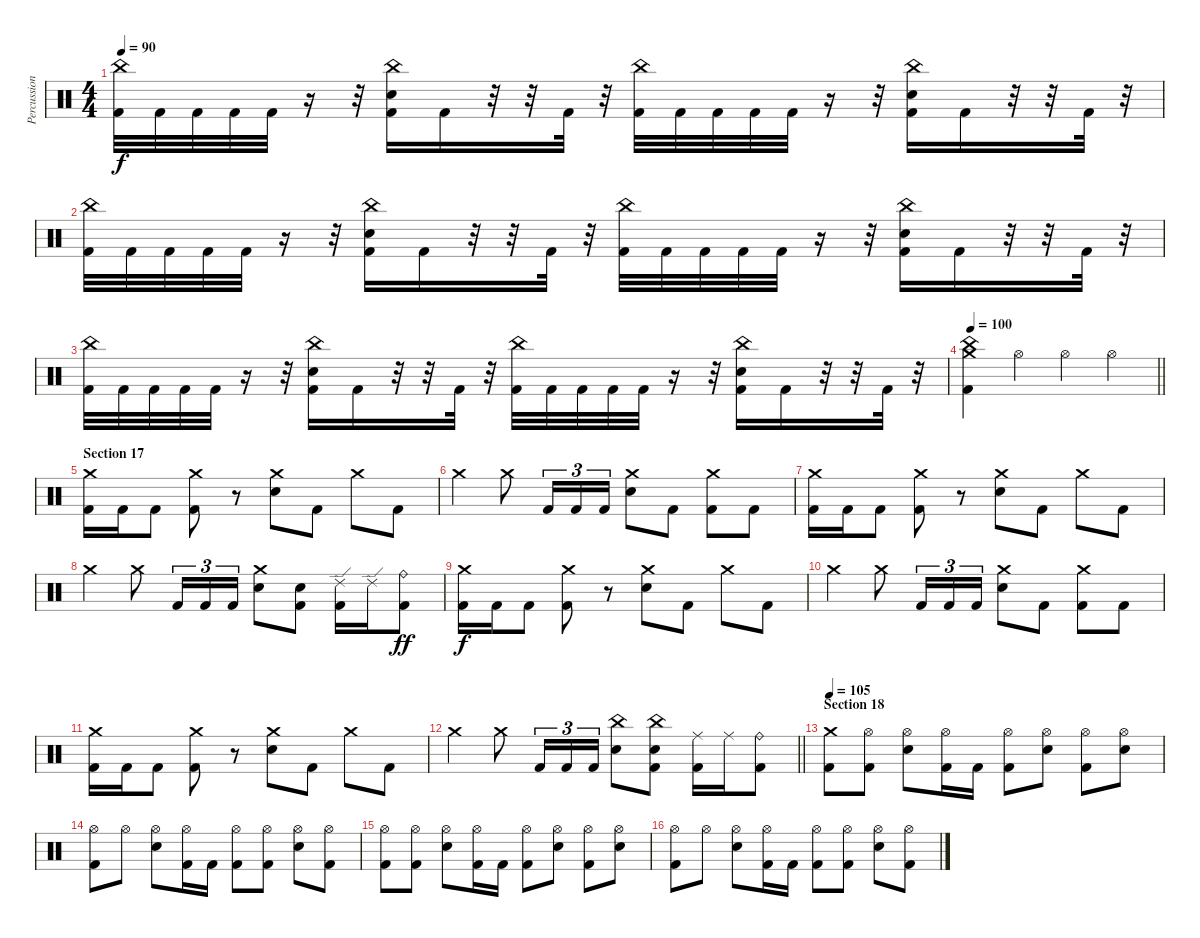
\track ("Percussion" "Percussion") {instrument percussion}
\staff {score}
\articulation defaults
\ts (4 4)
\tempo 90
\clef neutral
\ks c
("China (hit)" "Kick (hit) 2").32{dy f} "Kick (hit) 2".32 "Kick (hit) 2".32 "Kick (hit) 2".32 "Kick (hit) 2".32 r.16 r.32 ("China (hit)" "Electric Snare (hit)" "Kick (hit) 2").16 "Kick (hit) 2".16 r.32 r.32 "Kick (hit) 2".32 r.32 ("China (hit)" "Kick (hit) 2").32 "Kick (hit) 2".32 "Kick (hit) 2".32 "Kick (hit) 2".32 "Kick (hit) 2".32 r.16 r.32 ("China (hit)" "Electric Snare (hit)" "Kick (hit) 2").16 "Kick (hit) 2".16 r.32 r.32 "Kick (hit) 2".32 r.32 |
("China (hit)" "Kick (hit) 2").32 "Kick (hit) 2".32 "Kick (hit) 2".32 "Kick (hit) 2".32 "Kick (hit) 2".32 r.16 r.32 ("China (hit)" "Electric Snare (hit)" "Kick (hit) 2").16 "Kick (hit) 2".16 r.32 r.32 "Kick (hit) 2".32 r.32 ("China (hit)" "Kick (hit) 2").32 "Kick (hit) 2".32 "Kick (hit) 2".32 "Kick (hit) 2".32 "Kick (hit) 2".32 r.16 r.32 ("China (hit)" "Electric Snare (hit)" "Kick (hit) 2").16 "Kick (hit) 2".16 r.32 r.32 "Kick (hit) 2".32 r.32 |
("China (hit)" "Kick (hit) 2").32 "Kick (hit) 2".32 "Kick (hit) 2".32 "Kick (hit) 2".32 "Kick (hit) 2".32 r.16 r.32 ("China (hit)" "Electric Snare (hit)" "Kick (hit) 2").16 "Kick (hit) 2".16 r.32 r.32 "Kick (hit) 2".32 r.32 ("China (hit)" "Kick (hit) 2").32 "Kick (hit) 2".32 "Kick (hit) 2".32 "Kick (hit) 2".32 "Kick (hit) 2".32 r.16 r.32 ("China (hit)" "Electric Snare (hit)" "Kick (hit) 2").16 "Kick (hit) 2".16 r.32 r.32 "Kick (hit) 2".32 r.32 |
\tempo 100
\barLineRight lightlight
("China (hit)" "Crash medium (hit)" "Kick (hit) 2").4 "Hi-Hat (open)".4 "Hi-Hat (open)".4 "Hi-Hat (open)".4 |
\section ("" "Section 17")
("Crash medium (hit)" "Kick (hit) 2").16 "Kick (hit) 2".16 "Kick (hit) 2".8 ("Crash medium (hit)" "Kick (hit) 2").8 r.8 ("Crash medium (hit)" "Electric Snare (hit)").8 "Kick (hit) 2".8 "Crash medium (hit)".8 "Kick (hit) 2".8 |
"Crash medium (hit)".4 "Crash medium (hit)".8 "Kick (hit) 2".16{tu (3 2)} "Kick (hit) 2".16{tu (3 2)} "Kick (hit) 2".16{tu (3 2)} ("Crash medium (hit)" "Electric Snare (hit)").8 "Kick (hit) 2".8 ("Crash medium (hit)" "Kick (hit) 2").8 "Kick (hit) 2".8 |
("Crash medium (hit)" "Kick (hit) 2").16 "Kick (hit) 2".16 "Kick (hit) 2".8 ("Crash medium (hit)" "Kick (hit) 2").8 r.8 ("Crash medium (hit)" "Electric Snare (hit)").8 "Kick (hit) 2".8 "Crash medium (hit)".8 "Kick (hit) 2".8 |
"Crash medium (hit)".4 "Crash medium (hit)".8 "Kick (hit) 2".16{tu (3 2)} "Kick (hit) 2".16{tu (3 2)} "Kick (hit) 2".16{tu (3 2)} ("Crash medium (hit)" "Electric Snare (hit)").8 ("Electric Snare (hit)" "Kick (hit) 2").8 ("Ride (edge) 2" "Kick (hit) 2").16 "Ride (edge) 2".16 ("Ride (bell)" "Kick (hit) 2").8{dy ff} |
("Crash medium (hit)" "Kick (hit) 2").16{dy f} "Kick (hit) 2".16 "Kick (hit) 2".8 ("Crash medium (hit)" "Kick (hit) 2").8 r.8 ("Crash medium (hit)" "Electric Snare (hit)").8 "Kick (hit) 2".8 "Crash medium (hit)".8 "Kick (hit) 2".8 |
"Crash medium (hit)".4 "Crash medium (hit)".8 "Kick (hit) 2".16{tu (3 2)} "Kick (hit) 2".16{tu (3 2)} "Kick (hit) 2".16{tu (3 2)} ("Crash medium (hit)" "Electric Snare (hit)").8 "Kick (hit) 2".8 ("Crash medium (hit)" "Kick (hit) 2").8 "Kick (hit) 2".8 |
("Crash medium (hit)" "Kick (hit) 2").16 "Kick (hit) 2".16 "Kick (hit) 2".8 ("Crash medium (hit)" "Kick (hit) 2").8 r.8 ("Crash medium (hit)" "Electric Snare (hit)").8 "Kick (hit) 2".8 "Crash medium (hit)".8 "Kick (hit) 2".8 |
\barLineRight lightlight "Crash medium (hit)".4 "Crash medium (hit)".8 "Kick (hit) 2".16{tu (3 2)} "Kick (hit) 2".16{tu (3 2)} "Kick (hit) 2".16{tu (3 2)}
("China (hit)" "Electric Snare (hit)").8 ("China (hit)" "Electric Snare (hit)" "Kick (hit) 2").8 ("Ride (middle)" "Kick (hit) 2").16 "Ride (middle)".16 ("Ride (bell)" "Kick (hit) 2").8 |
\section ("" "Section 18")
\tempo 105
("Crash medium (hit)" "Kick (hit) 2").8 ("Hi-Hat (open)" "Kick (hit) 2").8 ("Hi-Hat (open)" "Electric Snare (hit)").8 ("Hi-Hat (open)" "Kick (hit) 2").16 "Kick (hit) 2".16 ("Hi-Hat (open)" "Kick (hit) 2").8 ("Hi-Hat (open)" "Electric Snare (hit)").8 ("Hi-Hat (open)" "Kick (hit) 2").8 ("Hi-Hat (open)" "Electric Snare (hit)").8 |
("Hi-Hat (open)" "Kick (hit) 2").8 "Hi-Hat (open)".8 ("Hi-Hat (open)" "Electric Snare (hit)").8 ("Hi-Hat (open)" "Kick (hit) 2").16 "Kick (hit) 2".16 ("Hi-Hat (open)" "Kick (hit) 2").8 ("Hi-Hat (open)" "Kick (hit) 2").8 ("Hi-Hat (open)" "Electric Snare (hit)").8 ("Hi-Hat (open)" "Kick (hit) 2").8 |
("Hi-Hat (open)" "Kick (hit) 2").8 ("Hi-Hat (open)" "Kick (hit) 2").8 ("Hi-Hat (open)" "Electric Snare (hit)").8 ("Hi-Hat (open)" "Kick (hit) 2").16 "Kick (hit) 2".16 ("Hi-Hat (open)" "Kick (hit) 2").8 ("Hi-Hat (open)" "Electric Snare (hit)").8 ("Hi-Hat (open)" "Kick (hit) 2").8 ("Hi-Hat (open)" "Electric Snare (hit)").8 |
("Hi-Hat (open)" "Kick (hit) 2").8 "Hi-Hat (open)".8 ("Hi-Hat (open)" "Electric Snare (hit)").8 ("Hi-Hat (open)" "Kick (hit) 2").16 "Kick (hit) 2".16 ("Hi-Hat (open)" "Kick (hit) 2").8 ("Hi-Hat (open)" "Kick (hit) 2").8 ("Hi-Hat (open)" "Electric Snare (hit)").8 ("Hi-Hat (open)" "Kick (hit) 2").8
